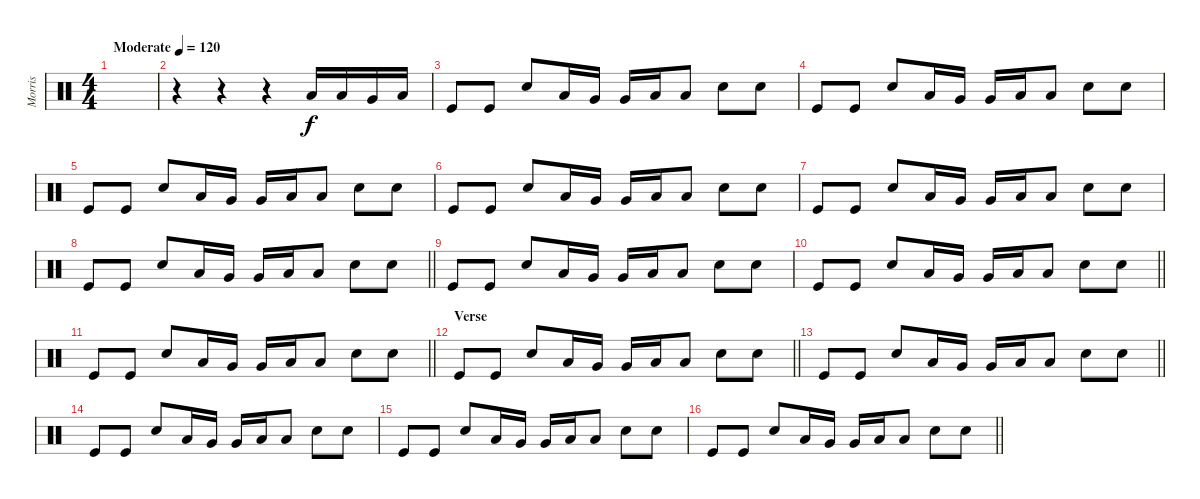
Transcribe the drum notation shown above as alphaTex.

\track ("Morris" "Morris") {instrument percussion}
\staff {score}
\articulation defaults
\ts (4 4)
\tempo (120 "Moderate")
\clef neutral
\ks c
|
r.4 r.4 r.4 "Low Tom (hit)".16 "Low Tom (hit)".16 "Very Low Tom (hit)".16 "Low Floor Tom (hit)".16 |
"Kick (hit)".8 "Kick (hit)".8 "Electric Snare (hit)".8 "Low Floor Tom (hit)".16 "Very Low Tom (hit)".16 "Very Low Tom (hit)".16 "Low Floor Tom (hit)".16 "Low Tom (hit)".8 "Electric Snare (hit)".8 "Electric Snare (hit)".8 |
"Kick (hit)".8 "Kick (hit)".8 "Electric Snare (hit)".8 "Low Floor Tom (hit)".16 "Very Low Tom (hit)".16 "Very Low Tom (hit)".16 "Low Floor Tom (hit)".16 "Low Tom (hit)".8 "Electric Snare (hit)".8 "Electric Snare (hit)".8 |
"Kick (hit)".8 "Kick (hit)".8 "Electric Snare (hit)".8 "Low Floor Tom (hit)".16 "Very Low Tom (hit)".16 "Very Low Tom (hit)".16 "Low Floor Tom (hit)".16 "Low Tom (hit)".8 "Electric Snare (hit)".8 "Electric Snare (hit)".8 |
"Kick (hit)".8 "Kick (hit)".8 "Electric Snare (hit)".8 "Low Floor Tom (hit)".16 "Very Low Tom (hit)".16 "Very Low Tom (hit)".16 "Low Floor Tom (hit)".16 "Low Tom (hit)".8 "Electric Snare (hit)".8 "Electric Snare (hit)".8 |
"Kick (hit)".8 "Kick (hit)".8 "Electric Snare (hit)".8 "Low Floor Tom (hit)".16 "Very Low Tom (hit)".16 "Very Low Tom (hit)".16 "Low Floor Tom (hit)".16 "Low Tom (hit)".8 "Electric Snare (hit)".8 "Electric Snare (hit)".8 |
\barLineRight lightlight "Kick (hit)".8 "Kick (hit)".8 "Electric Snare (hit)".8 "Low Floor Tom (hit)".16 "Very Low Tom (hit)".16 "Very Low Tom (hit)".16 "Low Floor Tom (hit)".16 "Low Tom (hit)".8 "Electric Snare (hit)".8 "Electric Snare (hit)".8
|
"Kick (hit)".8 "Kick (hit)".8 "Electric Snare (hit)".8 "Low Floor Tom (hit)".16 "Very Low Tom (hit)".16 "Very Low Tom (hit)".16 "Low Floor Tom (hit)".16 "Low Tom (hit)".8 "Electric Snare (hit)".8 "Electric Snare (hit)".8 |
\barLineRight lightlight "Kick (hit)".8 "Kick (hit)".8 "Electric Snare (hit)".8 "Low Floor Tom (hit)".16 "Very Low Tom (hit)".16 "Very Low Tom (hit)".16 "Low Floor Tom (hit)".16 "Low Tom (hit)".8 "Electric Snare (hit)".8 "Electric Snare (hit)".8
|
\barLineRight lightlight "Kick (hit)".8 "Kick (hit)".8 "Electric Snare (hit)".8 "Low Floor Tom (hit)".16 "Very Low Tom (hit)".16 "Very Low Tom (hit)".16 "Low Floor Tom (hit)".16 "Low Tom (hit)".8 "Electric Snare (hit)".8 "Electric Snare (hit)".8
|
\section ("" "Verse")
\barLineRight lightlight "Kick (hit)".8 "Kick (hit)".8 "Electric Snare (hit)".8 "Low Floor Tom (hit)".16 "Very Low Tom (hit)".16 "Very Low Tom (hit)".16 "Low Floor Tom (hit)".16 "Low Tom (hit)".8 "Electric Snare (hit)".8 "Electric Snare (hit)".8
|
\barLineRight lightlight "Kick (hit)".8 "Kick (hit)".8 "Electric Snare (hit)".8 "Low Floor Tom (hit)".16 "Very Low Tom (hit)".16 "Very Low Tom (hit)".16 "Low Floor Tom (hit)".16 "Low Tom (hit)".8 "Electric Snare (hit)".8 "Electric Snare (hit)".8
|
"Kick (hit)".8 "Kick (hit)".8 "Electric Snare (hit)".8 "Low Floor Tom (hit)".16 "Very Low Tom (hit)".16 "Very Low Tom (hit)".16 "Low Floor Tom (hit)".16 "Low Tom (hit)".8 "Electric Snare (hit)".8 "Electric Snare (hit)".8 |
"Kick (hit)".8 "Kick (hit)".8 "Electric Snare (hit)".8 "Low Floor Tom (hit)".16 "Very Low Tom (hit)".16 "Very Low Tom (hit)".16 "Low Floor Tom (hit)".16 "Low Tom (hit)".8 "Electric Snare (hit)".8 "Electric Snare (hit)".8 |
\barLineRight lightlight "Kick (hit)".8 "Kick (hit)".8 "Electric Snare (hit)".8 "Low Floor Tom (hit)".16 "Very Low Tom (hit)".16 "Very Low Tom (hit)".16 "Low Floor Tom (hit)".16 "Low Tom (hit)".8 "Electric Snare (hit)".8 "Electric Snare (hit)".8
